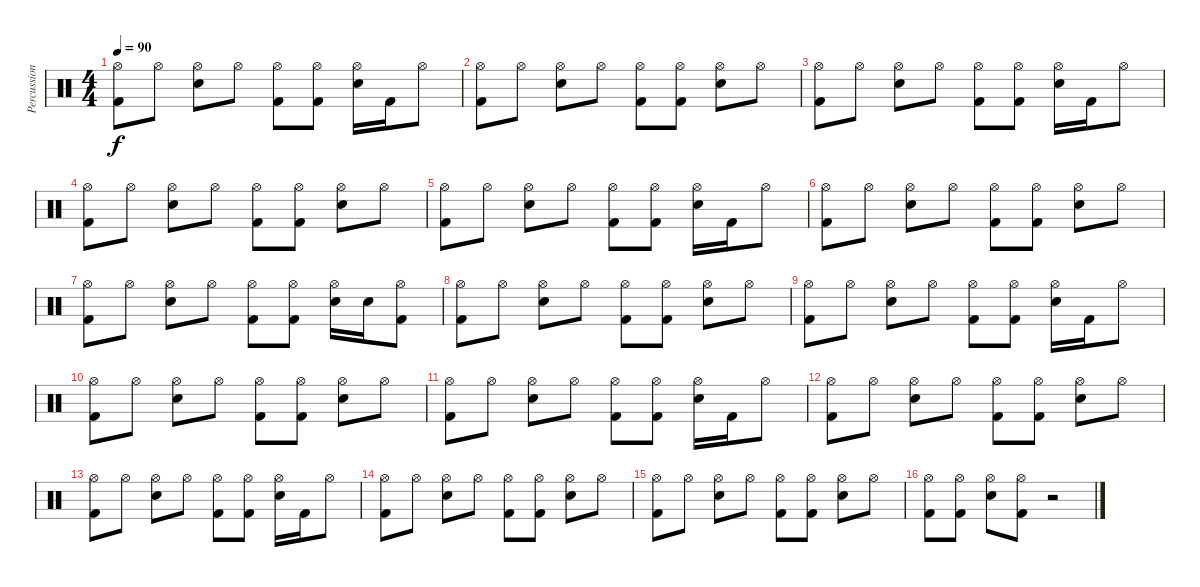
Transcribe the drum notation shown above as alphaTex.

\track ("Percussions" "Percussion") {instrument percussion}
\staff {score}
\articulation defaults
\ts (4 4)
\tempo 90
\clef neutral
\ks c
("Hi-Hat (open)" "Kick (hit) 2").8{dy f} "Hi-Hat (open)".8 ("Hi-Hat (open)" "Snare (hit) 2").8 "Hi-Hat (open)".8 ("Hi-Hat (open)" "Kick (hit) 2").8 ("Hi-Hat (open)" "Kick (hit) 2").8 ("Hi-Hat (open)" "Snare (hit) 2").16 "Kick (hit) 2".16 "Hi-Hat (open)".8 |
("Hi-Hat (open)" "Kick (hit) 2").8 "Hi-Hat (open)".8 ("Hi-Hat (open)" "Snare (hit) 2").8 "Hi-Hat (open)".8 ("Hi-Hat (open)" "Kick (hit) 2").8 ("Hi-Hat (open)" "Kick (hit) 2").8 ("Hi-Hat (open)" "Snare (hit) 2").8 "Hi-Hat (open)".8 |
("Hi-Hat (open)" "Kick (hit) 2").8 "Hi-Hat (open)".8 ("Hi-Hat (open)" "Snare (hit) 2").8 "Hi-Hat (open)".8 ("Hi-Hat (open)" "Kick (hit) 2").8 ("Hi-Hat (open)" "Kick (hit) 2").8 ("Hi-Hat (open)" "Snare (hit) 2").16 "Kick (hit) 2".16 "Hi-Hat (open)".8 |
("Hi-Hat (open)" "Kick (hit) 2").8 "Hi-Hat (open)".8 ("Hi-Hat (open)" "Snare (hit) 2").8 "Hi-Hat (open)".8 ("Hi-Hat (open)" "Kick (hit) 2").8 ("Hi-Hat (open)" "Kick (hit) 2").8 ("Hi-Hat (open)" "Snare (hit) 2").8 "Hi-Hat (open)".8 |
("Hi-Hat (open)" "Kick (hit) 2").8 "Hi-Hat (open)".8 ("Hi-Hat (open)" "Snare (hit) 2").8 "Hi-Hat (open)".8 ("Hi-Hat (open)" "Kick (hit) 2").8 ("Hi-Hat (open)" "Kick (hit) 2").8 ("Hi-Hat (open)" "Snare (hit) 2").16 "Kick (hit) 2".16 "Hi-Hat (open)".8 |
("Hi-Hat (open)" "Kick (hit) 2").8 "Hi-Hat (open)".8 ("Hi-Hat (open)" "Snare (hit) 2").8 "Hi-Hat (open)".8 ("Hi-Hat (open)" "Kick (hit) 2").8 ("Hi-Hat (open)" "Kick (hit) 2").8 ("Hi-Hat (open)" "Snare (hit) 2").8 "Hi-Hat (open)".8 |
("Hi-Hat (open)" "Kick (hit) 2").8 "Hi-Hat (open)".8 ("Hi-Hat (open)" "Snare (hit) 2").8 "Hi-Hat (open)".8 ("Hi-Hat (open)" "Kick (hit) 2").8 ("Hi-Hat (open)" "Kick (hit) 2").8 ("Hi-Hat (open)" "Snare (hit) 2").16 "Snare (hit) 2".16 ("Hi-Hat (open)" "Kick (hit) 2").8 |
("Hi-Hat (open)" "Kick (hit) 2").8 "Hi-Hat (open)".8 ("Hi-Hat (open)" "Snare (hit) 2").8 "Hi-Hat (open)".8 ("Hi-Hat (open)" "Kick (hit) 2").8 ("Hi-Hat (open)" "Kick (hit) 2").8 ("Hi-Hat (open)" "Snare (hit) 2").8 "Hi-Hat (open)".8 |
("Hi-Hat (open)" "Kick (hit) 2").8 "Hi-Hat (open)".8 ("Hi-Hat (open)" "Snare (hit) 2").8 "Hi-Hat (open)".8 ("Hi-Hat (open)" "Kick (hit) 2").8 ("Hi-Hat (open)" "Kick (hit) 2").8 ("Hi-Hat (open)" "Snare (hit) 2").16 "Kick (hit) 2".16 "Hi-Hat (open)".8 |
("Hi-Hat (open)" "Kick (hit) 2").8 "Hi-Hat (open)".8 ("Hi-Hat (open)" "Snare (hit) 2").8 "Hi-Hat (open)".8 ("Hi-Hat (open)" "Kick (hit) 2").8 ("Hi-Hat (open)" "Kick (hit) 2").8 ("Hi-Hat (open)" "Snare (hit) 2").8 "Hi-Hat (open)".8 |
("Hi-Hat (open)" "Kick (hit) 2").8 "Hi-Hat (open)".8 ("Hi-Hat (open)" "Snare (hit) 2").8 "Hi-Hat (open)".8 ("Hi-Hat (open)" "Kick (hit) 2").8 ("Hi-Hat (open)" "Kick (hit) 2").8 ("Hi-Hat (open)" "Snare (hit) 2").16 "Kick (hit) 2".16 "Hi-Hat (open)".8 |
("Hi-Hat (open)" "Kick (hit) 2").8 "Hi-Hat (open)".8 ("Hi-Hat (open)" "Snare (hit) 2").8 "Hi-Hat (open)".8 ("Hi-Hat (open)" "Kick (hit) 2").8 ("Hi-Hat (open)" "Kick (hit) 2").8 ("Hi-Hat (open)" "Snare (hit) 2").8 "Hi-Hat (open)".8 |
("Hi-Hat (open)" "Kick (hit) 2").8 "Hi-Hat (open)".8 ("Hi-Hat (open)" "Snare (hit) 2").8 "Hi-Hat (open)".8 ("Hi-Hat (open)" "Kick (hit) 2").8 ("Hi-Hat (open)" "Kick (hit) 2").8 ("Hi-Hat (open)" "Snare (hit) 2").16 "Kick (hit) 2".16 "Hi-Hat (open)".8 |
("Hi-Hat (open)" "Kick (hit) 2").8 "Hi-Hat (open)".8 ("Hi-Hat (open)" "Snare (hit) 2").8 "Hi-Hat (open)".8 ("Hi-Hat (open)" "Kick (hit) 2").8 ("Hi-Hat (open)" "Kick (hit) 2").8 ("Hi-Hat (open)" "Snare (hit) 2").8 "Hi-Hat (open)".8 |
("Hi-Hat (open)" "Kick (hit) 2").8 "Hi-Hat (open)".8 ("Hi-Hat (open)" "Snare (hit) 2").8 "Hi-Hat (open)".8 ("Hi-Hat (open)" "Kick (hit) 2").8 ("Hi-Hat (open)" "Kick (hit) 2").8 ("Hi-Hat (open)" "Snare (hit) 2").8 "Hi-Hat (open)".8 |
("Hi-Hat (open)" "Kick (hit) 2").8 ("Hi-Hat (open)" "Kick (hit) 2").8 ("Hi-Hat (open)" "Snare (hit) 2").8 ("Hi-Hat (open)" "Kick (hit) 2").8 r.2
